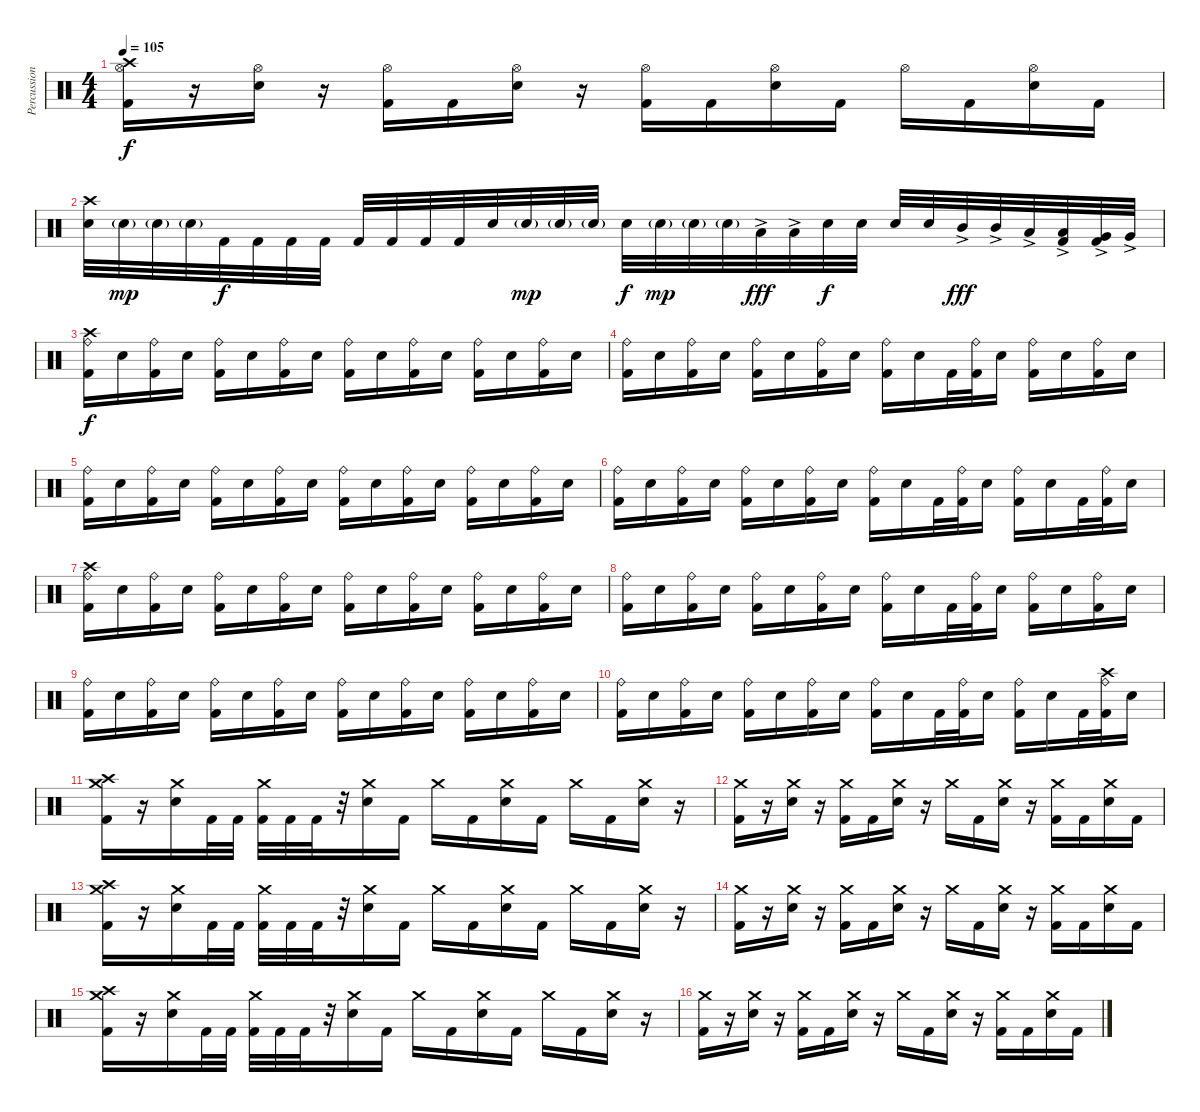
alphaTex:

\track ("Percussion" "Percussion") {instrument percussion}
\staff {score}
\articulation defaults
\ts (4 4)
\tempo 105
\clef neutral
\ks c
("Hi-Hat (open)" "Crash high (hit)" "Kick (hit) 2").16{dy f} r.16 ("Hi-Hat (open)" "Electric Snare (hit)").16 r.16 ("Hi-Hat (open)" "Kick (hit) 2").16 "Kick (hit) 2".16 ("Hi-Hat (open)" "Electric Snare (hit)").16 r.16 ("Hi-Hat (open)" "Kick (hit) 2").16 "Kick (hit) 2".16 ("Hi-Hat (open)" "Electric Snare (hit)").16 "Kick (hit) 2".16 "Hi-Hat (open)".16 "Kick (hit) 2".16 ("Hi-Hat (open)" "Electric Snare (hit)").16 "Kick (hit) 2".16 |
("Crash high (hit)" "Electric Snare (hit)").32 "Electric Snare (hit)"{g}.32{dy mp} "Electric Snare (hit)"{g}.32 "Electric Snare (hit)"{g}.32 "Kick (hit) 2".32{dy f} "Kick (hit) 2".32 "Kick (hit) 2".32 "Kick (hit) 2".32 "Kick (hit) 2".32 "Kick (hit) 2".32 "Kick (hit) 2".32 "Kick (hit) 2".32 "Electric Snare (hit)".32 "Electric Snare (hit)"{g}.32{dy mp} "Electric Snare (hit)"{g}.32 "Electric Snare (hit)"{g}.32 "Electric Snare (hit)".32{dy f} "Electric Snare (hit)"{g}.32{dy mp} "Electric Snare (hit)"{g}.32 "Electric Snare (hit)"{g}.32 "Low Tom (hit)"{ac}.32{dy fff} "Low Tom (hit)"{ac}.32 "Electric Snare (hit)".32{dy f} "Electric Snare (hit)".32 "Electric Snare (hit)".32 "Electric Snare (hit)".32 "Mid Tom (hit)"{ac}.32{dy fff} "Mid Tom (hit)"{ac}.32 "Low Floor Tom (hit)"{ac}.32 ("Low Floor Tom (hit)"{ac} "Kick (hit) 2").32 ("Very Low Tom (hit)"{ac} "Kick (hit) 2").32 "Very Low Tom (hit)"{ac}.32 |
("Ride (bell)" "Crash high (hit)" "Kick (hit) 2").16{dy f} "Electric Snare (hit)".16 ("Ride (bell)" "Kick (hit) 2").16 "Electric Snare (hit)".16 ("Ride (bell)" "Kick (hit) 2").16 "Electric Snare (hit)".16 ("Ride (bell)" "Kick (hit) 2").16 "Electric Snare (hit)".16 ("Ride (bell)" "Kick (hit) 2").16 "Electric Snare (hit)".16 ("Ride (bell)" "Kick (hit) 2").16 "Electric Snare (hit)".16 ("Ride (bell)" "Kick (hit) 2").16 "Electric Snare (hit)".16 ("Ride (bell)" "Kick (hit) 2").16 "Electric Snare (hit)".16 |
("Ride (bell)" "Kick (hit) 2").16 "Electric Snare (hit)".16 ("Ride (bell)" "Kick (hit) 2").16 "Electric Snare (hit)".16 ("Ride (bell)" "Kick (hit) 2").16 "Electric Snare (hit)".16 ("Ride (bell)" "Kick (hit) 2").16 "Electric Snare (hit)".16 ("Ride (bell)" "Kick (hit) 2").16 "Electric Snare (hit)".16 "Kick (hit) 2".32 ("Ride (bell)" "Kick (hit) 2").32 "Electric Snare (hit)".16 ("Ride (bell)" "Kick (hit) 2").16 "Electric Snare (hit)".16 ("Ride (bell)" "Kick (hit) 2").16 "Electric Snare (hit)".16 |
("Ride (bell)" "Kick (hit) 2").16 "Electric Snare (hit)".16 ("Ride (bell)" "Kick (hit) 2").16 "Electric Snare (hit)".16 ("Ride (bell)" "Kick (hit) 2").16 "Electric Snare (hit)".16 ("Ride (bell)" "Kick (hit) 2").16 "Electric Snare (hit)".16 ("Ride (bell)" "Kick (hit) 2").16 "Electric Snare (hit)".16 ("Ride (bell)" "Kick (hit) 2").16 "Electric Snare (hit)".16 ("Ride (bell)" "Kick (hit) 2").16 "Electric Snare (hit)".16 ("Ride (bell)" "Kick (hit) 2").16 "Electric Snare (hit)".16 |
("Ride (bell)" "Kick (hit) 2").16 "Electric Snare (hit)".16 ("Ride (bell)" "Kick (hit) 2").16 "Electric Snare (hit)".16 ("Ride (bell)" "Kick (hit) 2").16 "Electric Snare (hit)".16 ("Ride (bell)" "Kick (hit) 2").16 "Electric Snare (hit)".16 ("Ride (bell)" "Kick (hit) 2").16 "Electric Snare (hit)".16 "Kick (hit) 2".32 ("Ride (bell)" "Kick (hit) 2").32 "Electric Snare (hit)".16 ("Ride (bell)" "Kick (hit) 2").16 "Electric Snare (hit)".16 "Kick (hit) 2".32 ("Ride (bell)" "Kick (hit) 2").32 "Electric Snare (hit)".16 |
("Ride (bell)" "Crash high (hit)" "Kick (hit) 2").16 "Electric Snare (hit)".16 ("Ride (bell)" "Kick (hit) 2").16 "Electric Snare (hit)".16 ("Ride (bell)" "Kick (hit) 2").16 "Electric Snare (hit)".16 ("Ride (bell)" "Kick (hit) 2").16 "Electric Snare (hit)".16 ("Ride (bell)" "Kick (hit) 2").16 "Electric Snare (hit)".16 ("Ride (bell)" "Kick (hit) 2").16 "Electric Snare (hit)".16 ("Ride (bell)" "Kick (hit) 2").16 "Electric Snare (hit)".16 ("Ride (bell)" "Kick (hit) 2").16 "Electric Snare (hit)".16 |
("Ride (bell)" "Kick (hit) 2").16 "Electric Snare (hit)".16 ("Ride (bell)" "Kick (hit) 2").16 "Electric Snare (hit)".16 ("Ride (bell)" "Kick (hit) 2").16 "Electric Snare (hit)".16 ("Ride (bell)" "Kick (hit) 2").16 "Electric Snare (hit)".16 ("Ride (bell)" "Kick (hit) 2").16 "Electric Snare (hit)".16 "Kick (hit) 2".32 ("Ride (bell)" "Kick (hit) 2").32 "Electric Snare (hit)".16 ("Ride (bell)" "Kick (hit) 2").16 "Electric Snare (hit)".16 ("Ride (bell)" "Kick (hit) 2").16 "Electric Snare (hit)".16 |
("Ride (bell)" "Kick (hit) 2").16 "Electric Snare (hit)".16 ("Ride (bell)" "Kick (hit) 2").16 "Electric Snare (hit)".16 ("Ride (bell)" "Kick (hit) 2").16 "Electric Snare (hit)".16 ("Ride (bell)" "Kick (hit) 2").16 "Electric Snare (hit)".16 ("Ride (bell)" "Kick (hit) 2").16 "Electric Snare (hit)".16 ("Ride (bell)" "Kick (hit) 2").16 "Electric Snare (hit)".16 ("Ride (bell)" "Kick (hit) 2").16 "Electric Snare (hit)".16 ("Ride (bell)" "Kick (hit) 2").16 "Electric Snare (hit)".16 |
("Ride (bell)" "Kick (hit) 2").16 "Electric Snare (hit)".16 ("Ride (bell)" "Kick (hit) 2").16 "Electric Snare (hit)".16 ("Ride (bell)" "Kick (hit) 2").16 "Electric Snare (hit)".16 ("Ride (bell)" "Kick (hit) 2").16 "Electric Snare (hit)".16 ("Ride (bell)" "Kick (hit) 2").16 "Electric Snare (hit)".16 "Kick (hit) 2".32 ("Ride (bell)" "Kick (hit) 2").32 "Electric Snare (hit)".16 ("Ride (bell)" "Kick (hit) 2").16 "Electric Snare (hit)".16 "Kick (hit) 2".32 ("Ride (bell)" "Crash high (hit)" "Kick (hit) 2").32 "Electric Snare (hit)".16 |
("Crash medium (hit)" "Crash high (hit)" "Kick (hit) 2").16 r.16 ("Crash medium (hit)" "Electric Snare (hit)").16 "Kick (hit) 2".32 "Kick (hit) 2".32 ("Crash medium (hit)" "Kick (hit) 2").32 "Kick (hit) 2".32 "Kick (hit) 2".32 r.32 ("Crash medium (hit)" "Electric Snare (hit)").16 "Kick (hit) 2".16 "Crash medium (hit)".16 "Kick (hit) 2".16 ("Crash medium (hit)" "Electric Snare (hit)").16 "Kick (hit) 2".16 "Crash medium (hit)".16 "Kick (hit) 2".16 ("Crash medium (hit)" "Electric Snare (hit)").16 r.16 |
("Crash medium (hit)" "Kick (hit) 2").16 r.16 ("Crash medium (hit)" "Electric Snare (hit)").16 r.16 ("Crash medium (hit)" "Kick (hit) 2").16 "Kick (hit) 2".16 ("Crash medium (hit)" "Electric Snare (hit)").16 r.16 "Crash medium (hit)".16 "Kick (hit) 2".16 ("Crash medium (hit)" "Electric Snare (hit)").16 r.16 ("Crash medium (hit)" "Kick (hit) 2").16 "Kick (hit) 2".16 ("Crash medium (hit)" "Electric Snare (hit)").16 "Kick (hit) 2".16 |
("Crash medium (hit)" "Crash high (hit)" "Kick (hit) 2").16 r.16 ("Crash medium (hit)" "Electric Snare (hit)").16 "Kick (hit) 2".32 "Kick (hit) 2".32 ("Crash medium (hit)" "Kick (hit) 2").32 "Kick (hit) 2".32 "Kick (hit) 2".32 r.32 ("Crash medium (hit)" "Electric Snare (hit)").16 "Kick (hit) 2".16 "Crash medium (hit)".16 "Kick (hit) 2".16 ("Crash medium (hit)" "Electric Snare (hit)").16 "Kick (hit) 2".16 "Crash medium (hit)".16 "Kick (hit) 2".16 ("Crash medium (hit)" "Electric Snare (hit)").16 r.16 |
("Crash medium (hit)" "Kick (hit) 2").16 r.16 ("Crash medium (hit)" "Electric Snare (hit)").16 r.16 ("Crash medium (hit)" "Kick (hit) 2").16 "Kick (hit) 2".16 ("Crash medium (hit)" "Electric Snare (hit)").16 r.16 "Crash medium (hit)".16 "Kick (hit) 2".16 ("Crash medium (hit)" "Electric Snare (hit)").16 r.16 ("Crash medium (hit)" "Kick (hit) 2").16 "Kick (hit) 2".16 ("Crash medium (hit)" "Electric Snare (hit)").16 "Kick (hit) 2".16 |
("Crash medium (hit)" "Crash high (hit)" "Kick (hit) 2").16 r.16 ("Crash medium (hit)" "Electric Snare (hit)").16 "Kick (hit) 2".32 "Kick (hit) 2".32 ("Crash medium (hit)" "Kick (hit) 2").32 "Kick (hit) 2".32 "Kick (hit) 2".32 r.32 ("Crash medium (hit)" "Electric Snare (hit)").16 "Kick (hit) 2".16 "Crash medium (hit)".16 "Kick (hit) 2".16 ("Crash medium (hit)" "Electric Snare (hit)").16 "Kick (hit) 2".16 "Crash medium (hit)".16 "Kick (hit) 2".16 ("Crash medium (hit)" "Electric Snare (hit)").16 r.16 |
("Crash medium (hit)" "Kick (hit) 2").16 r.16 ("Crash medium (hit)" "Electric Snare (hit)").16 r.16 ("Crash medium (hit)" "Kick (hit) 2").16 "Kick (hit) 2".16 ("Crash medium (hit)" "Electric Snare (hit)").16 r.16 "Crash medium (hit)".16 "Kick (hit) 2".16 ("Crash medium (hit)" "Electric Snare (hit)").16 r.16 ("Crash medium (hit)" "Kick (hit) 2").16 "Kick (hit) 2".16 ("Crash medium (hit)" "Electric Snare (hit)").16 "Kick (hit) 2".16
